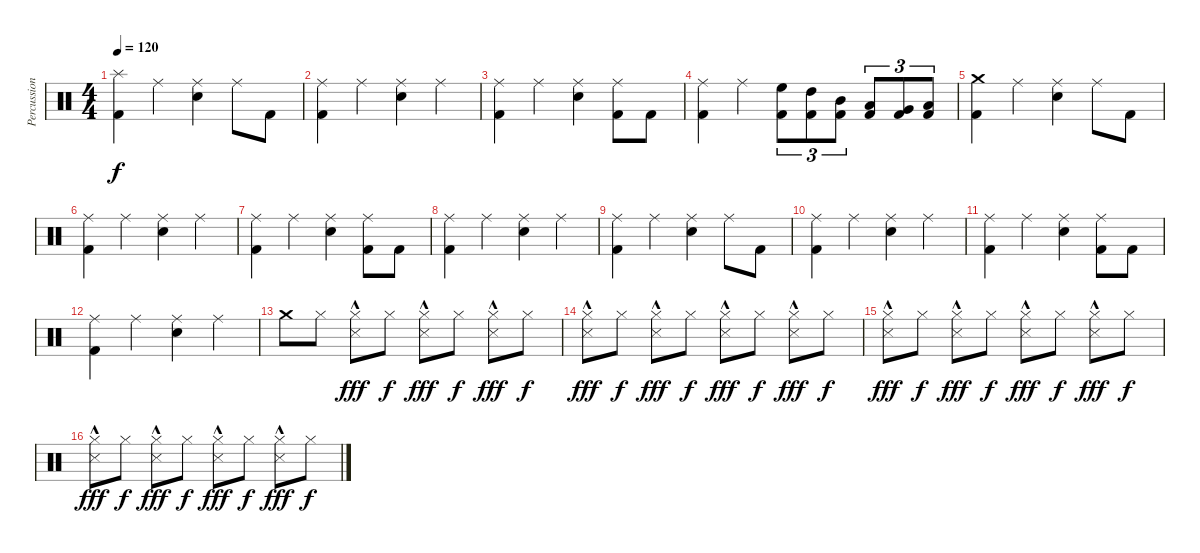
\track ("Percussion" "Percussion") {instrument percussion}
\staff {score}
\articulation defaults
\ts (4 4)
\tempo 120
\clef neutral
\ks c
("Kick (hit) 2" "Splash (hit)").4{dy f} "Ride (middle)".4 ("Ride (middle)" "Electric Snare (hit)").4 "Ride (middle)".8 "Kick (hit) 2".8 |
("Ride (middle)" "Kick (hit) 2").4 "Ride (middle)".4 ("Ride (middle)" "Electric Snare (hit)").4 "Ride (middle)".4 |
("Kick (hit) 2" "Ride (middle)").4 "Ride (middle)".4 ("Ride (middle)" "Electric Snare (hit)").4 ("Ride (middle)" "Kick (hit) 2").8 "Kick (hit) 2".8 |
("Ride (middle)" "Kick (hit) 2").4 "Ride (middle)".4 ("Kick (hit) 2" "High Floor Tom (hit)").8{tu (3 2)} ("Kick (hit) 2" "High Tom (hit)").8{tu (3 2)} ("Kick (hit) 2" "Mid Tom (hit)").8{tu (3 2)} ("Kick (hit) 2" "Low Tom (hit)").8{tu (3 2)} ("Kick (hit) 2" "Very Low Tom (hit)").8{tu (3 2)} ("Kick (hit) 2" "Low Floor Tom (hit)").8{tu (3 2)} |
("Crash medium (hit)" "Kick (hit) 2").4 "Ride (middle)".4 ("Ride (middle)" "Electric Snare (hit)").4 "Ride (middle)".8 "Kick (hit) 2".8 |
("Ride (middle)" "Kick (hit) 2").4 "Ride (middle)".4 ("Ride (middle)" "Electric Snare (hit)").4 "Ride (middle)".4 |
("Ride (middle)" "Kick (hit) 2").4 "Ride (middle)".4 ("Ride (middle)" "Electric Snare (hit)").4 ("Ride (middle)" "Kick (hit) 2").8 "Kick (hit) 2".8 |
("Kick (hit) 2" "Ride (middle)").4 "Ride (middle)".4 ("Ride (middle)" "Electric Snare (hit)").4 "Ride (middle)".4 |
("Ride (middle)" "Kick (hit) 2").4 "Ride (middle)".4 ("Ride (middle)" "Electric Snare (hit)").4 "Ride (middle)".8 "Kick (hit) 2".8 |
("Ride (middle)" "Kick (hit) 2").4 "Ride (middle)".4 ("Ride (middle)" "Electric Snare (hit)").4 "Ride (middle)".4 |
("Ride (middle)" "Kick (hit) 2").4 "Ride (middle)".4 ("Ride (middle)" "Electric Snare (hit)").4 ("Ride (middle)" "Kick (hit) 2").8 "Kick (hit) 2".8 |
("Kick (hit) 2" "Ride (middle)").4 "Ride (middle)".4 ("Ride (middle)" "Electric Snare (hit)").4 "Ride (middle)".4 |
"Crash medium (hit)".8 "Hi-Hat (closed)".8 ("Snare (side stick) 3"{hac} "Hi-Hat (closed)").8{dy fff} "Hi-Hat (closed)".8{dy f} ("Snare (side stick) 3"{hac} "Hi-Hat (closed)").8{dy fff} "Hi-Hat (closed)".8{dy f} ("Snare (side stick) 3"{hac} "Hi-Hat (closed)").8{dy fff} "Hi-Hat (closed)".8{dy f} |
("Snare (side stick) 3"{hac} "Hi-Hat (closed)").8{dy fff} "Hi-Hat (closed)".8{dy f} ("Snare (side stick) 3"{hac} "Hi-Hat (closed)").8{dy fff} "Hi-Hat (closed)".8{dy f} ("Snare (side stick) 3"{hac} "Hi-Hat (closed)").8{dy fff} "Hi-Hat (closed)".8{dy f} ("Snare (side stick) 3"{hac} "Hi-Hat (closed)").8{dy fff} "Hi-Hat (closed)".8{dy f} |
("Snare (side stick) 3"{hac} "Hi-Hat (closed)").8{dy fff} "Hi-Hat (closed)".8{dy f} ("Snare (side stick) 3"{hac} "Hi-Hat (closed)").8{dy fff} "Hi-Hat (closed)".8{dy f} ("Snare (side stick) 3"{hac} "Hi-Hat (closed)").8{dy fff} "Hi-Hat (closed)".8{dy f} ("Snare (side stick) 3"{hac} "Hi-Hat (closed)").8{dy fff} "Hi-Hat (closed)".8{dy f} |
("Snare (side stick) 3"{hac} "Hi-Hat (closed)").8{dy fff} "Hi-Hat (closed)".8{dy f} ("Snare (side stick) 3"{hac} "Hi-Hat (closed)").8{dy fff} "Hi-Hat (closed)".8{dy f} ("Snare (side stick) 3"{hac} "Hi-Hat (closed)").8{dy fff} "Hi-Hat (closed)".8{dy f} ("Snare (side stick) 3"{hac} "Hi-Hat (closed)").8{dy fff} "Hi-Hat (closed)".8{dy f}
